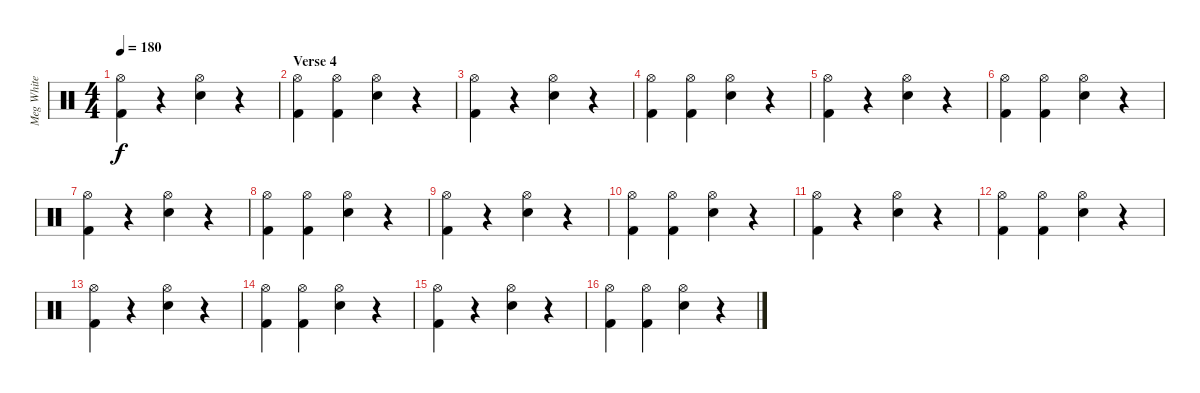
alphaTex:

\track ("Meg White" "Meg White") {instrument percussion}
\staff {score}
\articulation defaults
\ts (4 4)
\tempo 180
\clef neutral
\ks c
("Hi-Hat (open)" "Kick (hit) 2").4{dy f} r.4 ("Hi-Hat (open)" "Snare (hit) 2").4 r.4 |
\section ("" "Verse 4")
("Hi-Hat (open)" "Kick (hit) 2").4 ("Hi-Hat (open)" "Kick (hit) 2").4 ("Hi-Hat (open)" "Snare (hit) 2").4 r.4 |
("Hi-Hat (open)" "Kick (hit) 2").4 r.4 ("Hi-Hat (open)" "Snare (hit) 2").4 r.4 |
("Hi-Hat (open)" "Kick (hit) 2").4 ("Hi-Hat (open)" "Kick (hit) 2").4 ("Hi-Hat (open)" "Snare (hit) 2").4 r.4 |
("Hi-Hat (open)" "Kick (hit) 2").4 r.4 ("Hi-Hat (open)" "Snare (hit) 2").4 r.4 |
("Hi-Hat (open)" "Kick (hit) 2").4 ("Hi-Hat (open)" "Kick (hit) 2").4 ("Hi-Hat (open)" "Snare (hit) 2").4 r.4 |
("Hi-Hat (open)" "Kick (hit) 2").4 r.4 ("Hi-Hat (open)" "Snare (hit) 2").4 r.4 |
("Hi-Hat (open)" "Kick (hit) 2").4 ("Hi-Hat (open)" "Kick (hit) 2").4 ("Hi-Hat (open)" "Snare (hit) 2").4 r.4 |
("Hi-Hat (open)" "Kick (hit) 2").4 r.4 ("Hi-Hat (open)" "Snare (hit) 2").4 r.4 |
("Hi-Hat (open)" "Kick (hit) 2").4 ("Hi-Hat (open)" "Kick (hit) 2").4 ("Hi-Hat (open)" "Snare (hit) 2").4 r.4 |
("Hi-Hat (open)" "Kick (hit) 2").4 r.4 ("Hi-Hat (open)" "Snare (hit) 2").4 r.4 |
("Hi-Hat (open)" "Kick (hit) 2").4 ("Hi-Hat (open)" "Kick (hit) 2").4 ("Hi-Hat (open)" "Snare (hit) 2").4 r.4 |
("Hi-Hat (open)" "Kick (hit) 2").4 r.4 ("Hi-Hat (open)" "Snare (hit) 2").4 r.4 |
("Hi-Hat (open)" "Kick (hit) 2").4 ("Hi-Hat (open)" "Kick (hit) 2").4 ("Hi-Hat (open)" "Snare (hit) 2").4 r.4 |
("Hi-Hat (open)" "Kick (hit) 2").4 r.4 ("Hi-Hat (open)" "Snare (hit) 2").4 r.4 |
("Hi-Hat (open)" "Kick (hit) 2").4 ("Hi-Hat (open)" "Kick (hit) 2").4 ("Hi-Hat (open)" "Snare (hit) 2").4 r.4
